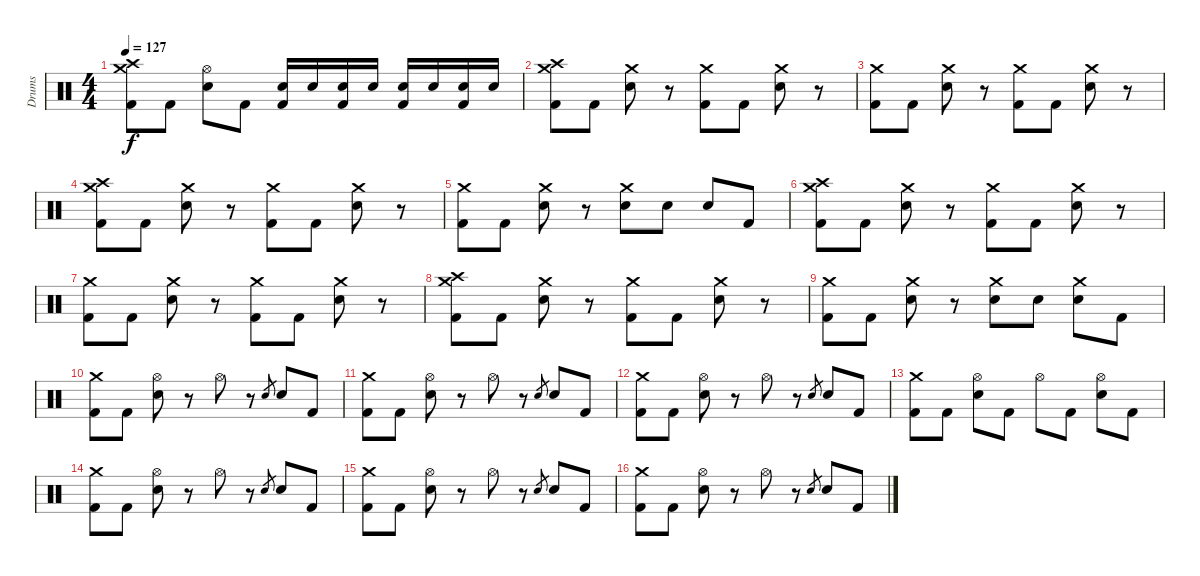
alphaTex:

\track ("Drums" "Drums") {instrument percussion}
\staff {score}
\articulation defaults
\ts (4 4)
\tempo 127
\clef neutral
\ks c
("Crash medium (hit)" "Crash high (hit)" "Kick (hit) 2").8{dy f} "Kick (hit) 2".8 ("Hi-Hat (open)" "Snare (hit) 2").8 "Kick (hit) 2".8 ("Snare (hit) 2" "Kick (hit) 2").16 "Snare (hit) 2".16 ("Snare (hit) 2" "Kick (hit) 2").16 "Snare (hit) 2".16 ("Snare (hit) 2" "Kick (hit) 2").16 "Snare (hit) 2".16 ("Snare (hit) 2" "Kick (hit) 2").16 "Snare (hit) 2".16 |
("Crash high (hit)" "Crash medium (hit)" "Kick (hit) 2").8 "Kick (hit) 2".8 ("Crash medium (hit)" "Snare (hit) 2").8 r.8 ("Crash medium (hit)" "Kick (hit) 2").8 "Kick (hit) 2".8 ("Crash medium (hit)" "Snare (hit) 2").8 r.8 |
("Crash medium (hit)" "Kick (hit) 2").8 "Kick (hit) 2".8 ("Crash medium (hit)" "Snare (hit) 2").8 r.8 ("Crash medium (hit)" "Kick (hit) 2").8 "Kick (hit) 2".8 ("Crash medium (hit)" "Snare (hit) 2").8 r.8 |
("Crash high (hit)" "Crash medium (hit)" "Kick (hit) 2").8 "Kick (hit) 2".8 ("Crash medium (hit)" "Snare (hit) 2").8 r.8 ("Crash medium (hit)" "Kick (hit) 2").8 "Kick (hit) 2".8 ("Crash medium (hit)" "Snare (hit) 2").8 r.8 |
("Crash medium (hit)" "Kick (hit) 2").8 "Kick (hit) 2".8 ("Crash medium (hit)" "Snare (hit) 2").8 r.8 ("Crash medium (hit)" "Snare (hit) 2").8 "Snare (hit) 2".8 "Snare (hit) 2".8 "Kick (hit) 2".8 |
("Crash high (hit)" "Crash medium (hit)" "Kick (hit) 2").8 "Kick (hit) 2".8 ("Crash medium (hit)" "Snare (hit) 2").8 r.8 ("Crash medium (hit)" "Kick (hit) 2").8 "Kick (hit) 2".8 ("Crash medium (hit)" "Snare (hit) 2").8 r.8 |
("Crash medium (hit)" "Kick (hit) 2").8 "Kick (hit) 2".8 ("Crash medium (hit)" "Snare (hit) 2").8 r.8 ("Crash medium (hit)" "Kick (hit) 2").8 "Kick (hit) 2".8 ("Crash medium (hit)" "Snare (hit) 2").8 r.8 |
("Crash high (hit)" "Crash medium (hit)" "Kick (hit) 2").8 "Kick (hit) 2".8 ("Crash medium (hit)" "Snare (hit) 2").8 r.8 ("Crash medium (hit)" "Kick (hit) 2").8 "Kick (hit) 2".8 ("Crash medium (hit)" "Snare (hit) 2").8 r.8 |
("Crash medium (hit)" "Kick (hit) 2").8 "Kick (hit) 2".8 ("Crash medium (hit)" "Snare (hit) 2").8 r.8 ("Crash medium (hit)" "Snare (hit) 2").8 "Snare (hit) 2".8 ("Crash medium (hit)" "Snare (hit) 2").8 "Kick (hit) 2".8 |
("Crash medium (hit)" "Kick (hit) 2").8 "Kick (hit) 2".8 ("Hi-Hat (open)" "Snare (hit) 2").8 r.8 "Hi-Hat (open)".8 r.8 "Snare (hit) 2".8{gr} "Snare (hit) 2".8 "Kick (hit) 2".8 |
("Crash medium (hit)" "Kick (hit) 2").8 "Kick (hit) 2".8 ("Hi-Hat (open)" "Snare (hit) 2").8 r.8 "Hi-Hat (open)".8 r.8 "Snare (hit) 2".8{gr} "Snare (hit) 2".8 "Kick (hit) 2".8 |
("Crash medium (hit)" "Kick (hit) 2").8 "Kick (hit) 2".8 ("Hi-Hat (open)" "Snare (hit) 2").8 r.8 "Hi-Hat (open)".8 r.8 "Snare (hit) 2".8{gr} "Snare (hit) 2".8 "Kick (hit) 2".8 |
("Crash medium (hit)" "Kick (hit) 2").8 "Kick (hit) 2".8 ("Hi-Hat (open)" "Snare (hit) 2").8 "Kick (hit) 2".8 "Hi-Hat (open)".8 "Kick (hit) 2".8 ("Hi-Hat (open)" "Snare (hit) 2").8 "Kick (hit) 2".8 |
("Crash medium (hit)" "Kick (hit) 2").8 "Kick (hit) 2".8 ("Hi-Hat (open)" "Snare (hit) 2").8 r.8 "Hi-Hat (open)".8 r.8 "Snare (hit) 2".8{gr} "Snare (hit) 2".8 "Kick (hit) 2".8 |
("Crash medium (hit)" "Kick (hit) 2").8 "Kick (hit) 2".8 ("Hi-Hat (open)" "Snare (hit) 2").8 r.8 "Hi-Hat (open)".8 r.8 "Snare (hit) 2".8{gr} "Snare (hit) 2".8 "Kick (hit) 2".8 |
("Crash medium (hit)" "Kick (hit) 2").8 "Kick (hit) 2".8 ("Hi-Hat (open)" "Snare (hit) 2").8 r.8 "Hi-Hat (open)".8 r.8 "Snare (hit) 2".8{gr} "Snare (hit) 2".8 "Kick (hit) 2".8
